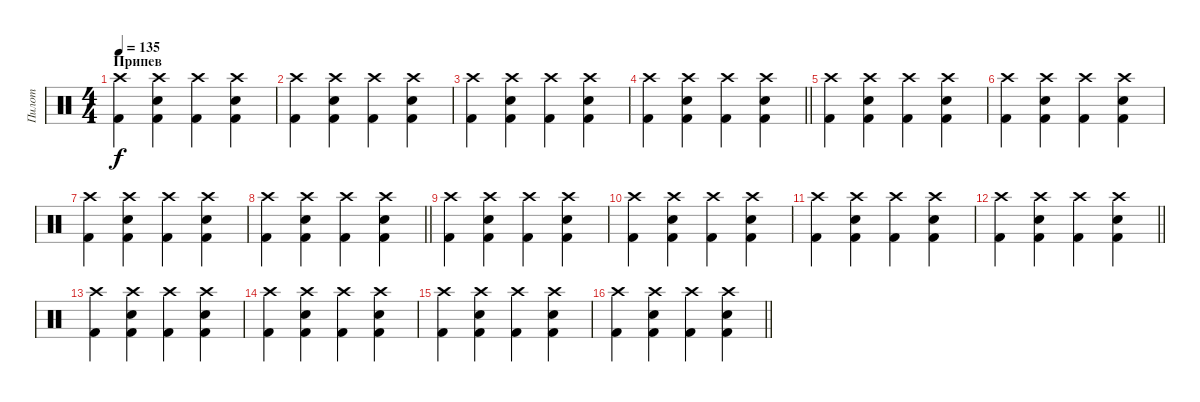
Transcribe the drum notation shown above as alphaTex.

\track ("Пилот" "Пилот") {instrument percussion}
\staff {score}
\articulation defaults
\ts (4 4)
\section ("" "Припев")
\tempo 135
\clef neutral
\ks c
("Crash high (hit)" "Kick (hit) 2").4{dy f} ("Crash high (hit)" "Kick (hit) 2" "Snare (hit) 2").4 ("Crash high (hit)" "Kick (hit) 2").4 ("Crash high (hit)" "Kick (hit) 2" "Snare (hit) 2").4 |
("Crash high (hit)" "Kick (hit) 2").4 ("Crash high (hit)" "Kick (hit) 2" "Snare (hit) 2").4 ("Crash high (hit)" "Kick (hit) 2").4 ("Crash high (hit)" "Kick (hit) 2" "Snare (hit) 2").4 |
("Crash high (hit)" "Kick (hit) 2").4 ("Crash high (hit)" "Kick (hit) 2" "Snare (hit) 2").4 ("Crash high (hit)" "Kick (hit) 2").4 ("Crash high (hit)" "Kick (hit) 2" "Snare (hit) 2").4 |
\barLineRight lightlight
("Crash high (hit)" "Kick (hit) 2").4 ("Crash high (hit)" "Kick (hit) 2" "Snare (hit) 2").4 ("Crash high (hit)" "Kick (hit) 2").4 ("Crash high (hit)" "Kick (hit) 2" "Snare (hit) 2").4 |
("Crash high (hit)" "Kick (hit) 2").4 ("Crash high (hit)" "Kick (hit) 2" "Snare (hit) 2").4 ("Crash high (hit)" "Kick (hit) 2").4 ("Crash high (hit)" "Kick (hit) 2" "Snare (hit) 2").4 |
("Crash high (hit)" "Kick (hit) 2").4 ("Crash high (hit)" "Kick (hit) 2" "Snare (hit) 2").4 ("Crash high (hit)" "Kick (hit) 2").4 ("Crash high (hit)" "Kick (hit) 2" "Snare (hit) 2").4 |
("Crash high (hit)" "Kick (hit) 2").4 ("Crash high (hit)" "Kick (hit) 2" "Snare (hit) 2").4 ("Crash high (hit)" "Kick (hit) 2").4 ("Crash high (hit)" "Kick (hit) 2" "Snare (hit) 2").4 |
\barLineRight lightlight
("Crash high (hit)" "Kick (hit) 2").4 ("Crash high (hit)" "Kick (hit) 2" "Snare (hit) 2").4 ("Crash high (hit)" "Kick (hit) 2").4 ("Crash high (hit)" "Kick (hit) 2" "Snare (hit) 2").4 |
("Crash high (hit)" "Kick (hit) 2").4 ("Crash high (hit)" "Kick (hit) 2" "Snare (hit) 2").4 ("Crash high (hit)" "Kick (hit) 2").4 ("Crash high (hit)" "Kick (hit) 2" "Snare (hit) 2").4 |
("Crash high (hit)" "Kick (hit) 2").4 ("Crash high (hit)" "Kick (hit) 2" "Snare (hit) 2").4 ("Crash high (hit)" "Kick (hit) 2").4 ("Crash high (hit)" "Kick (hit) 2" "Snare (hit) 2").4 |
("Crash high (hit)" "Kick (hit) 2").4 ("Crash high (hit)" "Kick (hit) 2" "Snare (hit) 2").4 ("Crash high (hit)" "Kick (hit) 2").4 ("Crash high (hit)" "Kick (hit) 2" "Snare (hit) 2").4 |
\barLineRight lightlight
("Crash high (hit)" "Kick (hit) 2").4 ("Crash high (hit)" "Kick (hit) 2" "Snare (hit) 2").4 ("Crash high (hit)" "Kick (hit) 2").4 ("Crash high (hit)" "Kick (hit) 2" "Snare (hit) 2").4 |
("Crash high (hit)" "Kick (hit) 2").4 ("Crash high (hit)" "Kick (hit) 2" "Snare (hit) 2").4 ("Crash high (hit)" "Kick (hit) 2").4 ("Crash high (hit)" "Kick (hit) 2" "Snare (hit) 2").4 |
("Crash high (hit)" "Kick (hit) 2").4 ("Crash high (hit)" "Kick (hit) 2" "Snare (hit) 2").4 ("Crash high (hit)" "Kick (hit) 2").4 ("Crash high (hit)" "Kick (hit) 2" "Snare (hit) 2").4 |
("Crash high (hit)" "Kick (hit) 2").4 ("Crash high (hit)" "Kick (hit) 2" "Snare (hit) 2").4 ("Crash high (hit)" "Kick (hit) 2").4 ("Crash high (hit)" "Kick (hit) 2" "Snare (hit) 2").4 |
\barLineRight lightlight
("Crash high (hit)" "Kick (hit) 2").4 ("Crash high (hit)" "Kick (hit) 2" "Snare (hit) 2").4 ("Crash high (hit)" "Kick (hit) 2").4 ("Crash high (hit)" "Kick (hit) 2" "Snare (hit) 2").4
